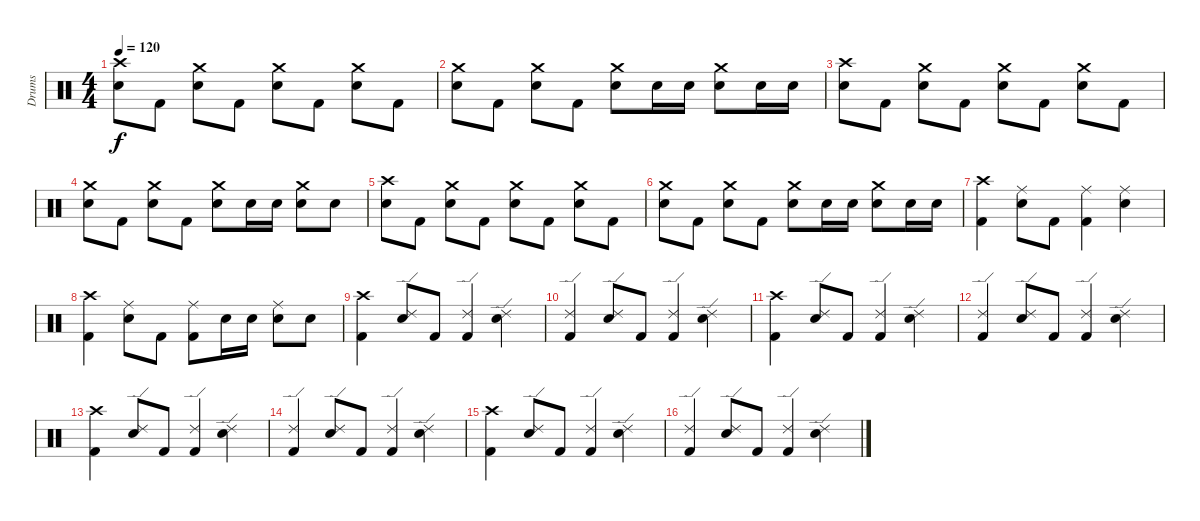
\track ("Drums" "Drums") {instrument percussion}
\staff {score}
\articulation defaults
\ts (4 4)
\tempo 120
\clef neutral
\ks c
("Crash high (hit)" "Electric Snare (hit)").8{dy f} "Kick (hit) 2".8 ("Crash medium (hit)" "Electric Snare (hit)").8 "Kick (hit) 2".8 ("Crash medium (hit)" "Electric Snare (hit)").8 "Kick (hit) 2".8 ("Crash medium (hit)" "Electric Snare (hit)").8 "Kick (hit) 2".8 |
("Crash medium (hit)" "Electric Snare (hit)").8 "Kick (hit) 2".8 ("Crash medium (hit)" "Electric Snare (hit)").8 "Kick (hit) 2".8 ("Crash medium (hit)" "Electric Snare (hit)").8 "Electric Snare (hit)".16 "Electric Snare (hit)".16 ("Crash medium (hit)" "Electric Snare (hit)").8 "Electric Snare (hit)".16 "Electric Snare (hit)".16 |
("Crash high (hit)" "Electric Snare (hit)").8 "Kick (hit) 2".8 ("Crash medium (hit)" "Electric Snare (hit)").8 "Kick (hit) 2".8 ("Crash medium (hit)" "Electric Snare (hit)").8 "Kick (hit) 2".8 ("Crash medium (hit)" "Electric Snare (hit)").8 "Kick (hit) 2".8 |
("Crash medium (hit)" "Electric Snare (hit)").8 "Kick (hit) 2".8 ("Crash medium (hit)" "Electric Snare (hit)").8 "Kick (hit) 2".8 ("Crash medium (hit)" "Electric Snare (hit)").8 "Electric Snare (hit)".16 "Electric Snare (hit)".16 ("Crash medium (hit)" "Electric Snare (hit)").8 "Electric Snare (hit)".8 |
("Crash high (hit)" "Electric Snare (hit)").8 "Kick (hit) 2".8 ("Crash medium (hit)" "Electric Snare (hit)").8 "Kick (hit) 2".8 ("Crash medium (hit)" "Electric Snare (hit)").8 "Kick (hit) 2".8 ("Crash medium (hit)" "Electric Snare (hit)").8 "Kick (hit) 2".8 |
("Crash medium (hit)" "Electric Snare (hit)").8 "Kick (hit) 2".8 ("Crash medium (hit)" "Electric Snare (hit)").8 "Kick (hit) 2".8 ("Crash medium (hit)" "Electric Snare (hit)").8 "Electric Snare (hit)".16 "Electric Snare (hit)".16 ("Crash medium (hit)" "Electric Snare (hit)").8 "Electric Snare (hit)".16 "Electric Snare (hit)".16 |
("Crash high (hit)" "Kick (hit) 2").4 ("Ride (middle)" "Electric Snare (hit)").8 "Kick (hit) 2".8 ("Ride (middle)" "Kick (hit) 2").4 ("Ride (middle)" "Electric Snare (hit)").4 |
("Crash high (hit)" "Kick (hit) 2").4 ("Ride (middle)" "Electric Snare (hit)").8 "Kick (hit) 2".8 ("Ride (middle)" "Kick (hit) 2").8 "Electric Snare (hit)".16 "Electric Snare (hit)".16 ("Ride (middle)" "Electric Snare (hit)").8 "Electric Snare (hit)".8 |
("Crash high (hit)" "Kick (hit) 2").4 ("Ride (edge) 2" "Electric Snare (hit)").8 "Kick (hit) 2".8 ("Ride (edge) 2" "Kick (hit) 2").4 ("Ride (edge) 2" "Electric Snare (hit)").4 |
("Ride (edge) 2" "Kick (hit) 2").4 ("Ride (edge) 2" "Electric Snare (hit)").8 "Kick (hit) 2".8 ("Ride (edge) 2" "Kick (hit) 2").4 ("Ride (edge) 2" "Electric Snare (hit)").4 |
("Crash high (hit)" "Kick (hit) 2").4 ("Ride (edge) 2" "Electric Snare (hit)").8 "Kick (hit) 2".8 ("Ride (edge) 2" "Kick (hit) 2").4 ("Ride (edge) 2" "Electric Snare (hit)").4 |
("Ride (edge) 2" "Kick (hit) 2").4 ("Ride (edge) 2" "Electric Snare (hit)").8 "Kick (hit) 2".8 ("Ride (edge) 2" "Kick (hit) 2").4 ("Ride (edge) 2" "Electric Snare (hit)").4 |
("Crash high (hit)" "Kick (hit) 2").4 ("Ride (edge) 2" "Electric Snare (hit)").8 "Kick (hit) 2".8 ("Ride (edge) 2" "Kick (hit) 2").4 ("Ride (edge) 2" "Electric Snare (hit)").4 |
("Ride (edge) 2" "Kick (hit) 2").4 ("Ride (edge) 2" "Electric Snare (hit)").8 "Kick (hit) 2".8 ("Ride (edge) 2" "Kick (hit) 2").4 ("Ride (edge) 2" "Electric Snare (hit)").4 |
("Crash high (hit)" "Kick (hit) 2").4 ("Ride (edge) 2" "Electric Snare (hit)").8 "Kick (hit) 2".8 ("Ride (edge) 2" "Kick (hit) 2").4 ("Ride (edge) 2" "Electric Snare (hit)").4 |
("Ride (edge) 2" "Kick (hit) 2").4 ("Ride (edge) 2" "Electric Snare (hit)").8 "Kick (hit) 2".8 ("Ride (edge) 2" "Kick (hit) 2").4 ("Ride (edge) 2" "Electric Snare (hit)").4
